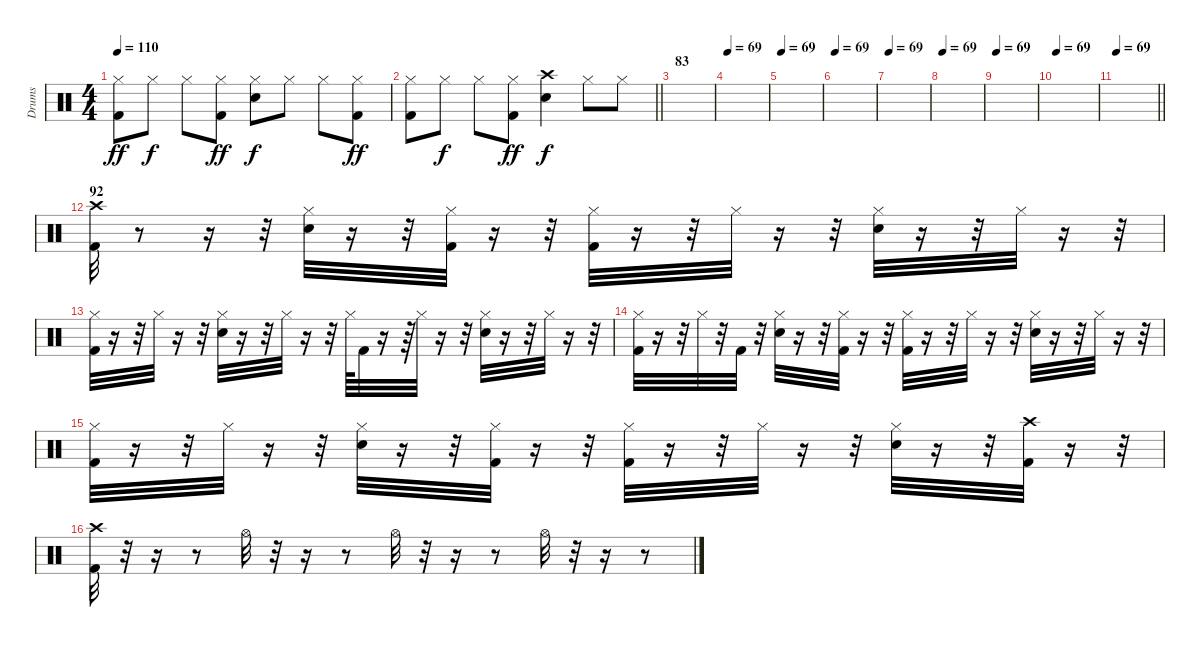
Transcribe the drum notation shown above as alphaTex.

\track ("Drums" "Drums") {instrument percussion}
\staff {score}
\articulation defaults
\ts (4 4)
\tempo 110
\clef neutral
\ks c
("Hi-Hat (closed)" "Kick (hit) 2").8{dy ff} "Hi-Hat (closed)".8{dy f} "Hi-Hat (closed)".8 ("Hi-Hat (closed)" "Kick (hit) 2").8{dy ff} ("Hi-Hat (closed)" "Snare (hit) 2").8{dy f} "Hi-Hat (closed)".8 "Hi-Hat (closed)".8 ("Hi-Hat (closed)" "Kick (hit) 2").8{dy ff} |
\barLineRight lightlight
("Hi-Hat (closed)" "Kick (hit) 2").8 "Hi-Hat (closed)".8{dy f} "Hi-Hat (closed)".8 ("Hi-Hat (closed)" "Kick (hit) 2").8{dy ff} ("Crash high (hit)" "Snare (hit) 2").4{dy f} "Hi-Hat (closed)".8 "Hi-Hat (closed)".8 |
\section ("" "83")
|
\tempo 69
|
\tempo 69
|
\tempo 69
|
\tempo 69
|
\tempo 69
|
\tempo 69
|
\tempo 69
|
\tempo 69
\barLineRight lightlight
|
\section ("" "92")
("Kick (hit) 2" "Crash high (hit)").32 r.8 r.16 r.32 ("Snare (hit) 2" "Hi-Hat (closed)").32 r.16 r.32 ("Hi-Hat (closed)" "Kick (hit) 2").32 r.16 r.32 ("Hi-Hat (closed)" "Kick (hit) 2").32 r.16 r.32 "Hi-Hat (closed)".32 r.16 r.32 ("Snare (hit) 2" "Hi-Hat (closed)").32 r.16 r.32 "Hi-Hat (closed)".32 r.16 r.32 |
("Hi-Hat (closed)" "Kick (hit) 2").32 r.16 r.32 "Hi-Hat (closed)".32 r.16 r.32 ("Snare (hit) 2" "Hi-Hat (closed)").32 r.16 r.32 "Hi-Hat (closed)".32 r.16 r.32 "Hi-Hat (closed)".64 "Kick (hit) 2".32 r.16 r.64 "Hi-Hat (closed)".32 r.16 r.32 ("Snare (hit) 2" "Hi-Hat (closed)").32 r.16 r.32 "Hi-Hat (closed)".32 r.16 r.32 |
("Hi-Hat (closed)" "Kick (hit) 2").32 r.16 r.32 "Hi-Hat (closed)".32 r.32 "Kick (hit) 2".32 r.32 ("Snare (hit) 2" "Hi-Hat (closed)").32 r.16 r.32 ("Hi-Hat (closed)" "Kick (hit) 2").32 r.16 r.32 ("Hi-Hat (closed)" "Kick (hit) 2").32 r.16 r.32 "Hi-Hat (closed)".32 r.16 r.32 ("Snare (hit) 2" "Hi-Hat (closed)").32 r.16 r.32 "Hi-Hat (closed)".32 r.16 r.32 |
("Kick (hit) 2" "Hi-Hat (closed)").32 r.16 r.32 "Hi-Hat (closed)".32 r.16 r.32 ("Snare (hit) 2" "Hi-Hat (closed)").32 r.16 r.32 ("Kick (hit) 2" "Hi-Hat (closed)").32 r.16 r.32 ("Hi-Hat (closed)" "Kick (hit) 2").32 r.16 r.32 "Hi-Hat (closed)".32 r.16 r.32 ("Snare (hit) 2" "Hi-Hat (closed)").32 r.16 r.32 ("Crash high (hit)" "Kick (hit) 2").32 r.16 r.32 |
("Kick (hit) 2" "Crash high (hit)").32 r.32 r.16 r.8 "Hi-Hat (open)".32 r.32 r.16 r.8 "Hi-Hat (open)".32 r.32 r.16 r.8 "Hi-Hat (open)".32 r.32 r.16 r.8
